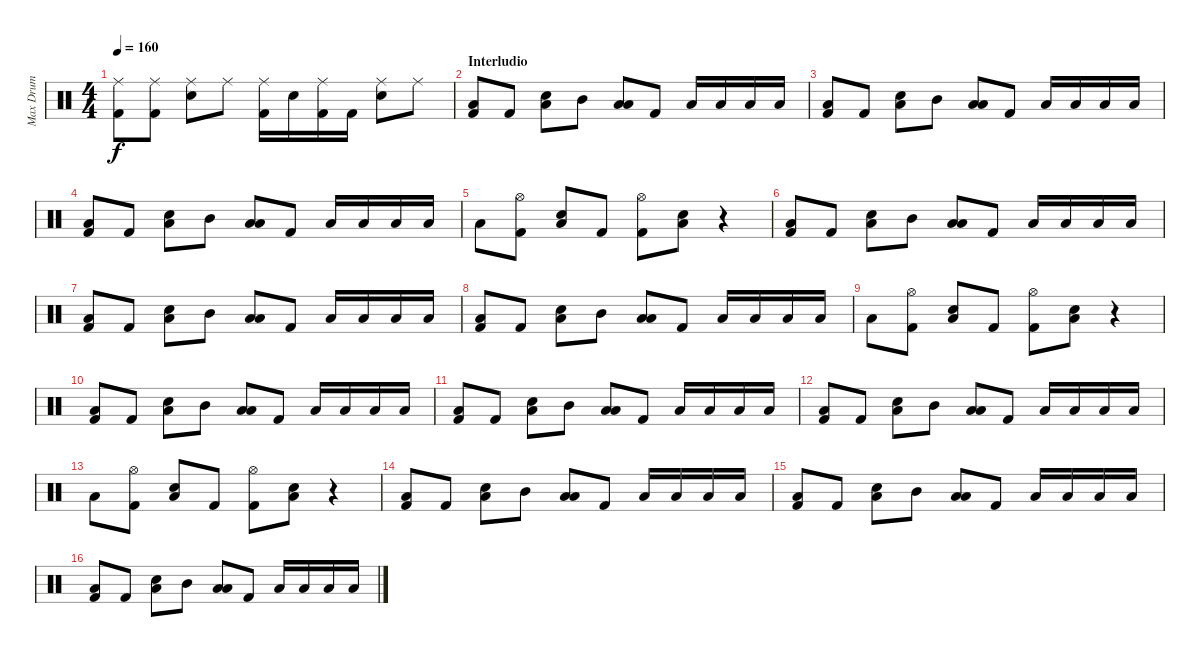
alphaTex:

\track ("Max Drum" "Max Drum") {instrument percussion}
\staff {score}
\articulation defaults
\ts (4 4)
\tempo 160
\clef neutral
\ks c
("Ride (middle)" "Kick (hit) 2").8{dy f} ("Ride (middle)" "Kick (hit) 2").8 ("Ride (middle)" "Snare (hit) 2").8 "Ride (middle)".8 ("Ride (middle)" "Kick (hit) 2").16 "Snare (hit) 2".16 ("Ride (middle)" "Kick (hit) 2").16 "Kick (hit) 2".16 ("Ride (middle)" "Snare (hit) 2").8 "Ride (middle)".8 |
\section ("" "Interludio")
("Low Floor Tom (hit)" "Kick (hit) 2").8 "Kick (hit) 2".8 ("Snare (hit) 2" "Low Floor Tom (hit)").8 "Mid Tom (hit)".8 ("Low Tom (hit)" "Low Floor Tom (hit)").8 "Kick (hit) 2".8 "Low Tom (hit)".16 "Low Tom (hit)".16 "Low Floor Tom (hit)".16 "Low Floor Tom (hit)".16 |
("Low Floor Tom (hit)" "Kick (hit) 2").8 "Kick (hit) 2".8 ("Snare (hit) 2" "Low Floor Tom (hit)").8 "Mid Tom (hit)".8 ("Low Tom (hit)" "Low Floor Tom (hit)").8 "Kick (hit) 2".8 "Low Tom (hit)".16 "Low Tom (hit)".16 "Low Floor Tom (hit)".16 "Low Floor Tom (hit)".16 |
("Low Floor Tom (hit)" "Kick (hit) 2").8 "Kick (hit) 2".8 ("Snare (hit) 2" "Low Floor Tom (hit)").8 "Mid Tom (hit)".8 ("Low Tom (hit)" "Low Floor Tom (hit)").8 "Kick (hit) 2".8 "Low Tom (hit)".16 "Low Tom (hit)".16 "Low Floor Tom (hit)".16 "Low Floor Tom (hit)".16 |
"Low Floor Tom (hit)".8 ("Hi-Hat (open)" "Kick (hit) 2").8 ("Snare (hit) 2" "Low Floor Tom (hit)").8 "Kick (hit) 2".8 ("Hi-Hat (open)" "Kick (hit) 2").8 ("Snare (hit) 2" "Low Floor Tom (hit)").8 r.4 |
("Low Floor Tom (hit)" "Kick (hit) 2").8 "Kick (hit) 2".8 ("Snare (hit) 2" "Low Floor Tom (hit)").8 "Mid Tom (hit)".8 ("Low Tom (hit)" "Low Floor Tom (hit)").8 "Kick (hit) 2".8 "Low Tom (hit)".16 "Low Tom (hit)".16 "Low Floor Tom (hit)".16 "Low Floor Tom (hit)".16 |
("Low Floor Tom (hit)" "Kick (hit) 2").8 "Kick (hit) 2".8 ("Snare (hit) 2" "Low Floor Tom (hit)").8 "Mid Tom (hit)".8 ("Low Tom (hit)" "Low Floor Tom (hit)").8 "Kick (hit) 2".8 "Low Tom (hit)".16 "Low Tom (hit)".16 "Low Floor Tom (hit)".16 "Low Floor Tom (hit)".16 |
("Low Floor Tom (hit)" "Kick (hit) 2").8 "Kick (hit) 2".8 ("Snare (hit) 2" "Low Floor Tom (hit)").8 "Mid Tom (hit)".8 ("Low Tom (hit)" "Low Floor Tom (hit)").8 "Kick (hit) 2".8 "Low Tom (hit)".16 "Low Tom (hit)".16 "Low Floor Tom (hit)".16 "Low Floor Tom (hit)".16 |
"Low Floor Tom (hit)".8 ("Hi-Hat (open)" "Kick (hit) 2").8 ("Snare (hit) 2" "Low Floor Tom (hit)").8 "Kick (hit) 2".8 ("Hi-Hat (open)" "Kick (hit) 2").8 ("Snare (hit) 2" "Low Floor Tom (hit)").8 r.4 |
("Low Floor Tom (hit)" "Kick (hit) 2").8 "Kick (hit) 2".8 ("Snare (hit) 2" "Low Floor Tom (hit)").8 "Mid Tom (hit)".8 ("Low Tom (hit)" "Low Floor Tom (hit)").8 "Kick (hit) 2".8 "Low Tom (hit)".16 "Low Tom (hit)".16 "Low Floor Tom (hit)".16 "Low Floor Tom (hit)".16 |
("Low Floor Tom (hit)" "Kick (hit) 2").8 "Kick (hit) 2".8 ("Snare (hit) 2" "Low Floor Tom (hit)").8 "Mid Tom (hit)".8 ("Low Tom (hit)" "Low Floor Tom (hit)").8 "Kick (hit) 2".8 "Low Tom (hit)".16 "Low Tom (hit)".16 "Low Floor Tom (hit)".16 "Low Floor Tom (hit)".16 |
("Low Floor Tom (hit)" "Kick (hit) 2").8 "Kick (hit) 2".8 ("Snare (hit) 2" "Low Floor Tom (hit)").8 "Mid Tom (hit)".8 ("Low Tom (hit)" "Low Floor Tom (hit)").8 "Kick (hit) 2".8 "Low Tom (hit)".16 "Low Tom (hit)".16 "Low Floor Tom (hit)".16 "Low Floor Tom (hit)".16 |
"Low Floor Tom (hit)".8 ("Hi-Hat (open)" "Kick (hit) 2").8 ("Snare (hit) 2" "Low Floor Tom (hit)").8 "Kick (hit) 2".8 ("Hi-Hat (open)" "Kick (hit) 2").8 ("Snare (hit) 2" "Low Floor Tom (hit)").8 r.4 |
("Low Floor Tom (hit)" "Kick (hit) 2").8 "Kick (hit) 2".8 ("Snare (hit) 2" "Low Floor Tom (hit)").8 "Mid Tom (hit)".8 ("Low Tom (hit)" "Low Floor Tom (hit)").8 "Kick (hit) 2".8 "Low Tom (hit)".16 "Low Tom (hit)".16 "Low Floor Tom (hit)".16 "Low Floor Tom (hit)".16 |
("Low Floor Tom (hit)" "Kick (hit) 2").8 "Kick (hit) 2".8 ("Snare (hit) 2" "Low Floor Tom (hit)").8 "Mid Tom (hit)".8 ("Low Tom (hit)" "Low Floor Tom (hit)").8 "Kick (hit) 2".8 "Low Tom (hit)".16 "Low Tom (hit)".16 "Low Floor Tom (hit)".16 "Low Floor Tom (hit)".16 |
("Low Floor Tom (hit)" "Kick (hit) 2").8 "Kick (hit) 2".8 ("Snare (hit) 2" "Low Floor Tom (hit)").8 "Mid Tom (hit)".8 ("Low Tom (hit)" "Low Floor Tom (hit)").8 "Kick (hit) 2".8 "Low Tom (hit)".16 "Low Tom (hit)".16 "Low Floor Tom (hit)".16 "Low Floor Tom (hit)".16
